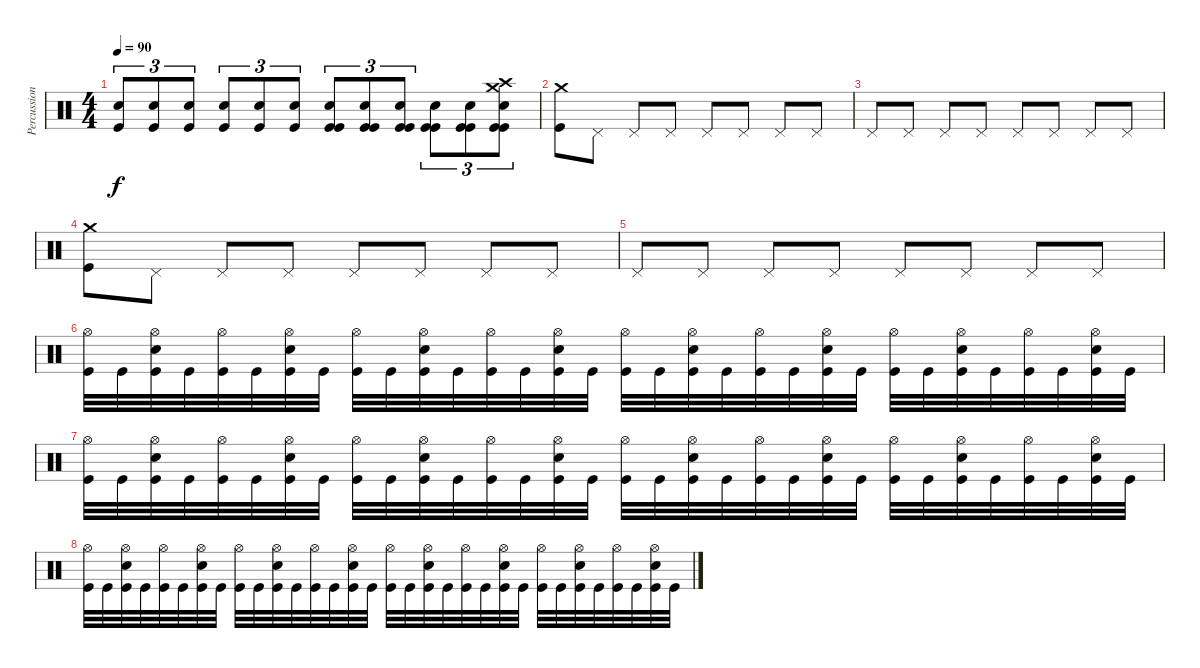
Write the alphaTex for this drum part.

\track ("Percussion" "Percussion") {instrument percussion}
\staff {score}
\articulation defaults
\ts (4 4)
\tempo 90
\clef neutral
\ks c
("Snare (hit) 2" "Kick (hit)").8{tu (3 2) dy f} ("Snare (hit) 2" "Kick (hit)").8{tu (3 2)} ("Snare (hit) 2" "Kick (hit)").8{tu (3 2)} ("Snare (hit) 2" "Kick (hit)").8{tu (3 2)} ("Snare (hit) 2" "Kick (hit)").8{tu (3 2)} ("Snare (hit) 2" "Kick (hit)").8{tu (3 2)} ("Snare (hit) 2" "Kick (hit)" "Kick (hit)").8{tu (3 2)} ("Snare (hit) 2" "Kick (hit)" "Kick (hit)").8{tu (3 2)} ("Snare (hit) 2" "Kick (hit)" "Kick (hit)").8{tu (3 2)} ("Snare (hit) 2" "Kick (hit)" "Kick (hit)").8{tu (3 2)} ("Snare (hit) 2" "Kick (hit)" "Kick (hit)").8{tu (3 2)} ("Crash high (hit)" "Crash medium (hit)" "Snare (hit) 2" "Kick (hit)" "Kick (hit)").8{tu (3 2)} |
("Crash medium (hit)" "Kick (hit)").8 "Pedal Hi-Hat (hit)".8 "Pedal Hi-Hat (hit)".8 "Pedal Hi-Hat (hit)".8 "Pedal Hi-Hat (hit)".8 "Pedal Hi-Hat (hit)".8 "Pedal Hi-Hat (hit)".8 "Pedal Hi-Hat (hit)".8 |
"Pedal Hi-Hat (hit)".8 "Pedal Hi-Hat (hit)".8 "Pedal Hi-Hat (hit)".8 "Pedal Hi-Hat (hit)".8 "Pedal Hi-Hat (hit)".8 "Pedal Hi-Hat (hit)".8 "Pedal Hi-Hat (hit)".8 "Pedal Hi-Hat (hit)".8 |
("Crash medium (hit)" "Kick (hit)").8 "Pedal Hi-Hat (hit)".8 "Pedal Hi-Hat (hit)".8 "Pedal Hi-Hat (hit)".8 "Pedal Hi-Hat (hit)".8 "Pedal Hi-Hat (hit)".8 "Pedal Hi-Hat (hit)".8 "Pedal Hi-Hat (hit)".8 |
"Pedal Hi-Hat (hit)".8 "Pedal Hi-Hat (hit)".8 "Pedal Hi-Hat (hit)".8 "Pedal Hi-Hat (hit)".8 "Pedal Hi-Hat (hit)".8 "Pedal Hi-Hat (hit)".8 "Pedal Hi-Hat (hit)".8 "Pedal Hi-Hat (hit)".8 |
("Hi-Hat (open)" "Kick (hit)").32 "Kick (hit)".32 ("Hi-Hat (open)" "Snare (hit) 2" "Kick (hit)").32 "Kick (hit)".32 ("Hi-Hat (open)" "Kick (hit)").32 "Kick (hit)".32 ("Hi-Hat (open)" "Snare (hit) 2" "Kick (hit)").32 "Kick (hit)".32 ("Hi-Hat (open)" "Kick (hit)").32 "Kick (hit)".32 ("Hi-Hat (open)" "Snare (hit) 2" "Kick (hit)").32 "Kick (hit)".32 ("Hi-Hat (open)" "Kick (hit)").32 "Kick (hit)".32 ("Hi-Hat (open)" "Snare (hit) 2" "Kick (hit)").32 "Kick (hit)".32 ("Hi-Hat (open)" "Kick (hit)").32 "Kick (hit)".32 ("Hi-Hat (open)" "Snare (hit) 2" "Kick (hit)").32 "Kick (hit)".32 ("Hi-Hat (open)" "Kick (hit)").32 "Kick (hit)".32 ("Hi-Hat (open)" "Snare (hit) 2" "Kick (hit)").32 "Kick (hit)".32 ("Hi-Hat (open)" "Kick (hit)").32 "Kick (hit)".32 ("Hi-Hat (open)" "Snare (hit) 2" "Kick (hit)").32 "Kick (hit)".32 ("Hi-Hat (open)" "Kick (hit)").32 "Kick (hit)".32 ("Hi-Hat (open)" "Snare (hit) 2" "Kick (hit)").32 "Kick (hit)".32 |
("Hi-Hat (open)" "Kick (hit)").32 "Kick (hit)".32 ("Hi-Hat (open)" "Snare (hit) 2" "Kick (hit)").32 "Kick (hit)".32 ("Hi-Hat (open)" "Kick (hit)").32 "Kick (hit)".32 ("Hi-Hat (open)" "Snare (hit) 2" "Kick (hit)").32 "Kick (hit)".32 ("Hi-Hat (open)" "Kick (hit)").32 "Kick (hit)".32 ("Hi-Hat (open)" "Snare (hit) 2" "Kick (hit)").32 "Kick (hit)".32 ("Hi-Hat (open)" "Kick (hit)").32 "Kick (hit)".32 ("Hi-Hat (open)" "Snare (hit) 2" "Kick (hit)").32 "Kick (hit)".32 ("Hi-Hat (open)" "Kick (hit)").32 "Kick (hit)".32 ("Hi-Hat (open)" "Snare (hit) 2" "Kick (hit)").32 "Kick (hit)".32 ("Hi-Hat (open)" "Kick (hit)").32 "Kick (hit)".32 ("Hi-Hat (open)" "Snare (hit) 2" "Kick (hit)").32 "Kick (hit)".32 ("Hi-Hat (open)" "Kick (hit)").32 "Kick (hit)".32 ("Hi-Hat (open)" "Snare (hit) 2" "Kick (hit)").32 "Kick (hit)".32 ("Hi-Hat (open)" "Kick (hit)").32 "Kick (hit)".32 ("Hi-Hat (open)" "Snare (hit) 2" "Kick (hit)").32 "Kick (hit)".32 |
("Hi-Hat (open)" "Kick (hit)").32 "Kick (hit)".32 ("Hi-Hat (open)" "Snare (hit) 2" "Kick (hit)").32 "Kick (hit)".32 ("Hi-Hat (open)" "Kick (hit)").32 "Kick (hit)".32 ("Hi-Hat (open)" "Snare (hit) 2" "Kick (hit)").32 "Kick (hit)".32 ("Hi-Hat (open)" "Kick (hit)").32 "Kick (hit)".32 ("Hi-Hat (open)" "Snare (hit) 2" "Kick (hit)").32 "Kick (hit)".32 ("Hi-Hat (open)" "Kick (hit)").32 "Kick (hit)".32 ("Hi-Hat (open)" "Snare (hit) 2" "Kick (hit)").32 "Kick (hit)".32 ("Hi-Hat (open)" "Kick (hit)").32 "Kick (hit)".32 ("Hi-Hat (open)" "Snare (hit) 2" "Kick (hit)").32 "Kick (hit)".32 ("Hi-Hat (open)" "Kick (hit)").32 "Kick (hit)".32 ("Hi-Hat (open)" "Snare (hit) 2" "Kick (hit)").32 "Kick (hit)".32 ("Hi-Hat (open)" "Kick (hit)").32 "Kick (hit)".32 ("Hi-Hat (open)" "Snare (hit) 2" "Kick (hit)").32 "Kick (hit)".32 ("Hi-Hat (open)" "Kick (hit)").32 "Kick (hit)".32 ("Hi-Hat (open)" "Snare (hit) 2" "Kick (hit)").32 "Kick (hit)".32
